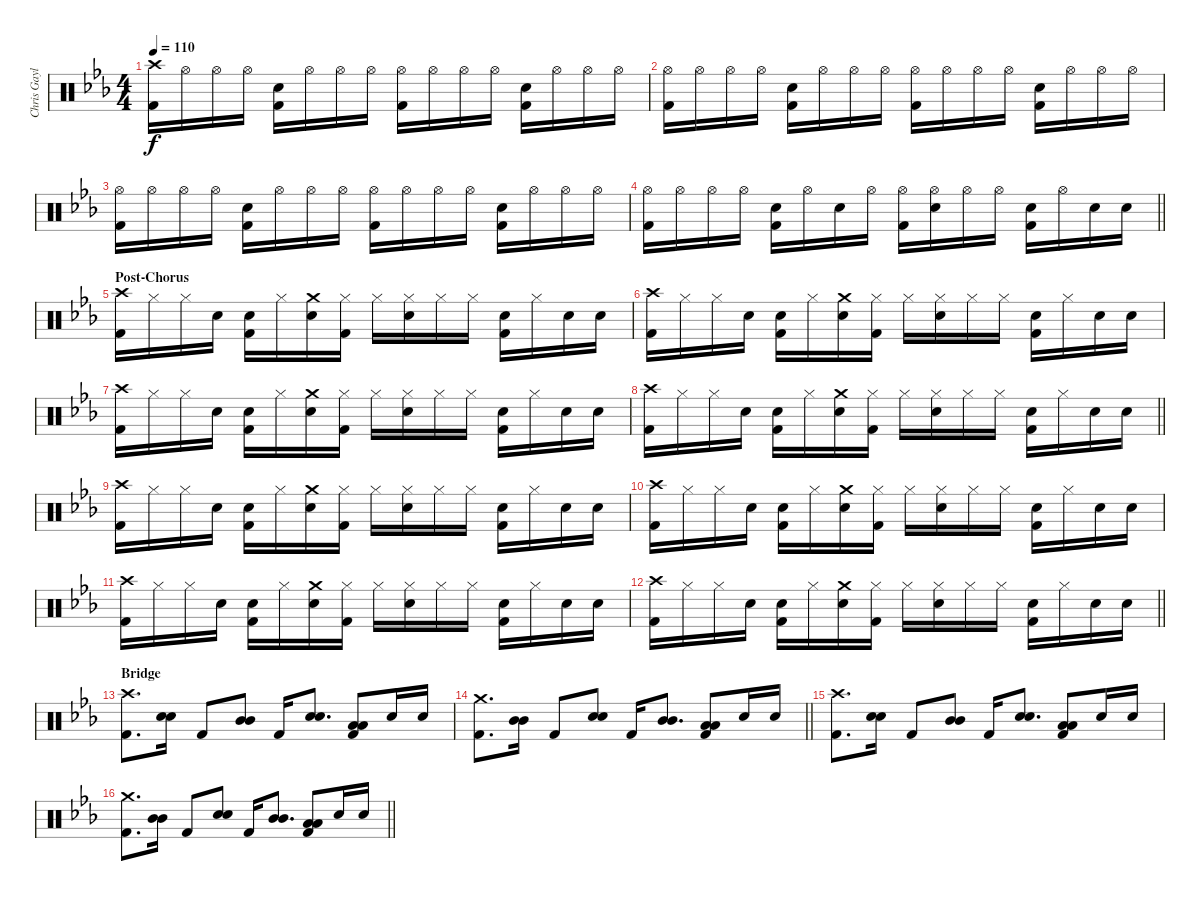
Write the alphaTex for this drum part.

\track ("Chris Gaylor (Percussion)" "Chris Gayl") {instrument percussion}
\staff {score}
\articulation defaults
\ts (4 4)
\tempo 110
\clef neutral
\ks eb
("Crash high (hit)" "Kick (hit) 2").16{dy f} "Hi-Hat (open)".16 "Hi-Hat (open)".16 "Hi-Hat (open)".16 ("Electric Snare (hit)" "Kick (hit) 2").16 "Hi-Hat (open)".16 "Hi-Hat (open)".16 "Hi-Hat (open)".16 ("Hi-Hat (open)" "Kick (hit) 2").16 "Hi-Hat (open)".16 "Hi-Hat (open)".16 "Hi-Hat (open)".16 ("Electric Snare (hit)" "Kick (hit) 2").16 "Hi-Hat (open)".16 "Hi-Hat (open)".16 "Hi-Hat (open)".16 |
("Hi-Hat (open)" "Kick (hit) 2").16 "Hi-Hat (open)".16 "Hi-Hat (open)".16 "Hi-Hat (open)".16 ("Electric Snare (hit)" "Kick (hit) 2").16 "Hi-Hat (open)".16 "Hi-Hat (open)".16 "Hi-Hat (open)".16 ("Hi-Hat (open)" "Kick (hit) 2").16 "Hi-Hat (open)".16 "Hi-Hat (open)".16 "Hi-Hat (open)".16 ("Electric Snare (hit)" "Kick (hit) 2").16 "Hi-Hat (open)".16 "Hi-Hat (open)".16 "Hi-Hat (open)".16 |
("Hi-Hat (open)" "Kick (hit) 2").16 "Hi-Hat (open)".16 "Hi-Hat (open)".16 "Hi-Hat (open)".16 ("Electric Snare (hit)" "Kick (hit) 2").16 "Hi-Hat (open)".16 "Hi-Hat (open)".16 "Hi-Hat (open)".16 ("Hi-Hat (open)" "Kick (hit) 2").16 "Hi-Hat (open)".16 "Hi-Hat (open)".16 "Hi-Hat (open)".16 ("Electric Snare (hit)" "Kick (hit) 2").16 "Hi-Hat (open)".16 "Hi-Hat (open)".16 "Hi-Hat (open)".16 |
\barLineRight lightlight
("Hi-Hat (open)" "Kick (hit) 2").16 "Hi-Hat (open)".16 "Hi-Hat (open)".16 "Hi-Hat (open)".16 ("Electric Snare (hit)" "Kick (hit) 2").16 "Hi-Hat (open)".16 "Electric Snare (hit)".16 "Hi-Hat (open)".16 ("Hi-Hat (open)" "Kick (hit) 2").16 ("Hi-Hat (open)" "Electric Snare (hit)").16 "Hi-Hat (open)".16 "Hi-Hat (open)".16 ("Electric Snare (hit)" "Kick (hit) 2").16 "Hi-Hat (open)".16 "Electric Snare (hit)".16 "Electric Snare (hit)".16 |
\section ("" "Post-Chorus")
("Crash high (hit)" "Kick (hit) 2").16 "Hi-Hat (closed)".16 "Hi-Hat (closed)".16 "Electric Snare (hit)".16 ("Electric Snare (hit)" "Kick (hit) 2").16 "Hi-Hat (closed)".16 ("Crash medium (hit)" "Electric Snare (hit)").16 ("Hi-Hat (closed)" "Kick (hit) 2").16 "Hi-Hat (closed)".16 ("Hi-Hat (closed)" "Electric Snare (hit)").16 "Hi-Hat (closed)".16 "Hi-Hat (closed)".16 ("Electric Snare (hit)" "Kick (hit) 2").16 "Hi-Hat (closed)".16 "Electric Snare (hit)".16 "Electric Snare (hit)".16 |
("Crash high (hit)" "Kick (hit) 2").16 "Hi-Hat (closed)".16 "Hi-Hat (closed)".16 "Electric Snare (hit)".16 ("Electric Snare (hit)" "Kick (hit) 2").16 "Hi-Hat (closed)".16 ("Crash medium (hit)" "Electric Snare (hit)").16 ("Hi-Hat (closed)" "Kick (hit) 2").16 "Hi-Hat (closed)".16 ("Hi-Hat (closed)" "Electric Snare (hit)").16 "Hi-Hat (closed)".16 "Hi-Hat (closed)".16 ("Electric Snare (hit)" "Kick (hit) 2").16 "Hi-Hat (closed)".16 "Electric Snare (hit)".16 "Electric Snare (hit)".16 |
("Crash high (hit)" "Kick (hit) 2").16 "Hi-Hat (closed)".16 "Hi-Hat (closed)".16 "Electric Snare (hit)".16 ("Electric Snare (hit)" "Kick (hit) 2").16 "Hi-Hat (closed)".16 ("Crash medium (hit)" "Electric Snare (hit)").16 ("Hi-Hat (closed)" "Kick (hit) 2").16 "Hi-Hat (closed)".16 ("Hi-Hat (closed)" "Electric Snare (hit)").16 "Hi-Hat (closed)".16 "Hi-Hat (closed)".16 ("Electric Snare (hit)" "Kick (hit) 2").16 "Hi-Hat (closed)".16 "Electric Snare (hit)".16 "Electric Snare (hit)".16 |
\barLineRight lightlight
("Crash high (hit)" "Kick (hit) 2").16 "Hi-Hat (closed)".16 "Hi-Hat (closed)".16 "Electric Snare (hit)".16 ("Electric Snare (hit)" "Kick (hit) 2").16 "Hi-Hat (closed)".16 ("Crash medium (hit)" "Electric Snare (hit)").16 ("Hi-Hat (closed)" "Kick (hit) 2").16 "Hi-Hat (closed)".16 ("Hi-Hat (closed)" "Electric Snare (hit)").16 "Hi-Hat (closed)".16 "Hi-Hat (closed)".16 ("Electric Snare (hit)" "Kick (hit) 2").16 "Hi-Hat (closed)".16 "Electric Snare (hit)".16 "Electric Snare (hit)".16 |
("Crash high (hit)" "Kick (hit) 2").16 "Hi-Hat (closed)".16 "Hi-Hat (closed)".16 "Electric Snare (hit)".16 ("Electric Snare (hit)" "Kick (hit) 2").16 "Hi-Hat (closed)".16 ("Crash medium (hit)" "Electric Snare (hit)").16 ("Hi-Hat (closed)" "Kick (hit) 2").16 "Hi-Hat (closed)".16 ("Hi-Hat (closed)" "Electric Snare (hit)").16 "Hi-Hat (closed)".16 "Hi-Hat (closed)".16 ("Electric Snare (hit)" "Kick (hit) 2").16 "Hi-Hat (closed)".16 "Electric Snare (hit)".16 "Electric Snare (hit)".16 |
("Crash high (hit)" "Kick (hit) 2").16 "Hi-Hat (closed)".16 "Hi-Hat (closed)".16 "Electric Snare (hit)".16 ("Electric Snare (hit)" "Kick (hit) 2").16 "Hi-Hat (closed)".16 ("Crash medium (hit)" "Electric Snare (hit)").16 ("Hi-Hat (closed)" "Kick (hit) 2").16 "Hi-Hat (closed)".16 ("Hi-Hat (closed)" "Electric Snare (hit)").16 "Hi-Hat (closed)".16 "Hi-Hat (closed)".16 ("Electric Snare (hit)" "Kick (hit) 2").16 "Hi-Hat (closed)".16 "Electric Snare (hit)".16 "Electric Snare (hit)".16 |
("Crash high (hit)" "Kick (hit) 2").16 "Hi-Hat (closed)".16 "Hi-Hat (closed)".16 "Electric Snare (hit)".16 ("Electric Snare (hit)" "Kick (hit) 2").16 "Hi-Hat (closed)".16 ("Crash medium (hit)" "Electric Snare (hit)").16 ("Hi-Hat (closed)" "Kick (hit) 2").16 "Hi-Hat (closed)".16 ("Hi-Hat (closed)" "Electric Snare (hit)").16 "Hi-Hat (closed)".16 "Hi-Hat (closed)".16 ("Electric Snare (hit)" "Kick (hit) 2").16 "Hi-Hat (closed)".16 "Electric Snare (hit)".16 "Electric Snare (hit)".16 |
\barLineRight lightlight
("Crash high (hit)" "Kick (hit) 2").16 "Hi-Hat (closed)".16 "Hi-Hat (closed)".16 "Electric Snare (hit)".16 ("Electric Snare (hit)" "Kick (hit) 2").16 "Hi-Hat (closed)".16 ("Crash medium (hit)" "Electric Snare (hit)").16 ("Hi-Hat (closed)" "Kick (hit) 2").16 "Hi-Hat (closed)".16 ("Hi-Hat (closed)" "Electric Snare (hit)").16 "Hi-Hat (closed)".16 "Hi-Hat (closed)".16 ("Electric Snare (hit)" "Kick (hit) 2").16 "Hi-Hat (closed)".16 "Electric Snare (hit)".16 "Electric Snare (hit)".16 |
\section ("" "Bridge")
("Crash high (hit)" "Kick (hit) 2").8{d} ("Electric Snare (hit)" "Electric Snare (hit)").16 "Kick (hit) 2".8 ("Mid Tom (hit)" "Mid Tom (hit)").8 "Kick (hit) 2".16 ("Electric Snare (hit)" "Electric Snare (hit)").8{d} ("Low Tom (hit)" "Low Tom (hit)" "Kick (hit) 2").8 "Electric Snare (hit)".16 "Electric Snare (hit)".16 |
\barLineRight lightlight
("Crash medium (hit)" "Kick (hit) 2").8{d} ("Mid Tom (hit)" "Mid Tom (hit)").16 "Kick (hit) 2".8 ("Electric Snare (hit)" "Electric Snare (hit)").8 "Kick (hit) 2".16 ("Mid Tom (hit)" "Mid Tom (hit)").8{d} ("Low Tom (hit)" "Low Tom (hit)" "Kick (hit) 2").8 "Electric Snare (hit)".16 "Electric Snare (hit)".16 |
("Crash high (hit)" "Kick (hit) 2").8{d} ("Electric Snare (hit)" "Electric Snare (hit)").16 "Kick (hit) 2".8 ("Mid Tom (hit)" "Mid Tom (hit)").8 "Kick (hit) 2".16 ("Electric Snare (hit)" "Electric Snare (hit)").8{d} ("Low Tom (hit)" "Low Tom (hit)" "Kick (hit) 2").8 "Electric Snare (hit)".16 "Electric Snare (hit)".16 |
\barLineRight lightlight
("Crash medium (hit)" "Kick (hit) 2").8{d} ("Mid Tom (hit)" "Mid Tom (hit)").16 "Kick (hit) 2".8 ("Electric Snare (hit)" "Electric Snare (hit)").8 "Kick (hit) 2".16 ("Mid Tom (hit)" "Mid Tom (hit)").8{d} ("Low Tom (hit)" "Low Tom (hit)" "Kick (hit) 2").8 "Electric Snare (hit)".16 "Electric Snare (hit)".16
